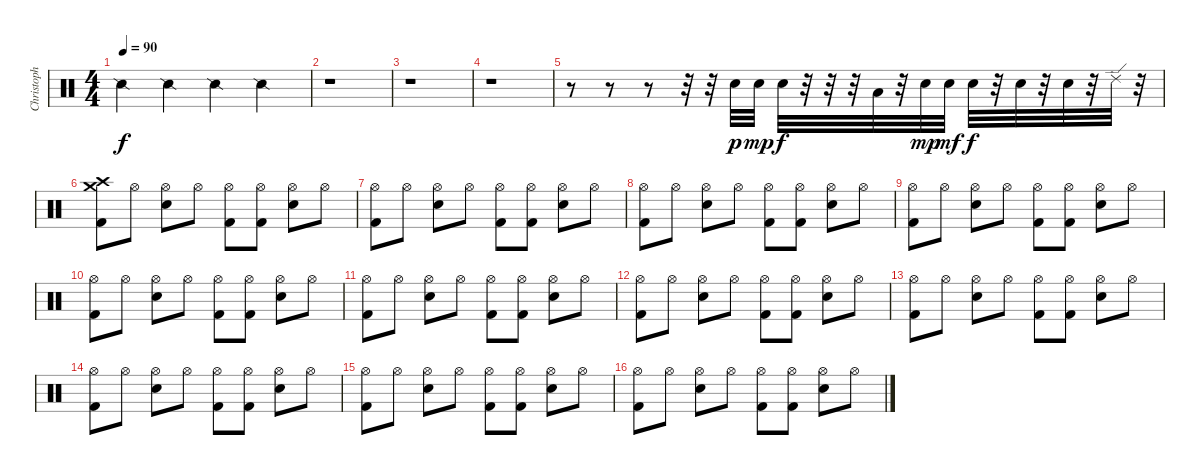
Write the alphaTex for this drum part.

\track ("Christoph Schneider" "Christoph ") {instrument percussion}
\staff {score}
\articulation defaults
\ts (4 4)
\tempo 90
\clef neutral
\ks c "Snare (side stick) 2".4{dy f} "Snare (side stick) 2".4 "Snare (side stick) 2".4 "Snare (side stick) 2".4
|
r.1 |
r.1 |
r.1 |
r.8 r.8 r.8 r.32 r.32 "Snare (hit) 2".32{dy p} "Snare (hit) 2".32{dy mp} "Snare (hit) 2".32{dy f} r.32 r.32 r.32 "Low Tom (hit)".32 r.32 "Snare (hit) 2".32{dy mp} "Snare (hit) 2".32{dy mf} "Snare (hit) 2".32{dy f} r.32 "Snare (hit) 2".32 r.32 "Snare (hit) 2".32 r.32 "Ride (edge) 2".32 r.32 |
("Crash medium (hit)" "Kick (hit) 2" "Crash high (hit)").8 "Hi-Hat (open)".8 ("Snare (hit) 2" "Hi-Hat (open)").8 "Hi-Hat (open)".8 ("Kick (hit) 2" "Hi-Hat (open)").8 ("Kick (hit) 2" "Hi-Hat (open)").8 ("Snare (hit) 2" "Hi-Hat (open)").8 "Hi-Hat (open)".8 |
("Kick (hit) 2" "Hi-Hat (open)").8 "Hi-Hat (open)".8 ("Snare (hit) 2" "Hi-Hat (open)").8 "Hi-Hat (open)".8 ("Kick (hit) 2" "Hi-Hat (open)").8 ("Kick (hit) 2" "Hi-Hat (open)").8 ("Snare (hit) 2" "Hi-Hat (open)").8 "Hi-Hat (open)".8 |
("Kick (hit) 2" "Hi-Hat (open)").8 "Hi-Hat (open)".8 ("Snare (hit) 2" "Hi-Hat (open)").8 "Hi-Hat (open)".8 ("Kick (hit) 2" "Hi-Hat (open)").8 ("Kick (hit) 2" "Hi-Hat (open)").8 ("Snare (hit) 2" "Hi-Hat (open)").8 "Hi-Hat (open)".8 |
("Kick (hit) 2" "Hi-Hat (open)").8 "Hi-Hat (open)".8 ("Snare (hit) 2" "Hi-Hat (open)").8 "Hi-Hat (open)".8 ("Kick (hit) 2" "Hi-Hat (open)").8 ("Kick (hit) 2" "Hi-Hat (open)").8 ("Snare (hit) 2" "Hi-Hat (open)").8 "Hi-Hat (open)".8 |
("Kick (hit) 2" "Hi-Hat (open)").8 "Hi-Hat (open)".8 ("Snare (hit) 2" "Hi-Hat (open)").8 "Hi-Hat (open)".8 ("Kick (hit) 2" "Hi-Hat (open)").8 ("Kick (hit) 2" "Hi-Hat (open)").8 ("Snare (hit) 2" "Hi-Hat (open)").8 "Hi-Hat (open)".8 |
("Kick (hit) 2" "Hi-Hat (open)").8 "Hi-Hat (open)".8 ("Snare (hit) 2" "Hi-Hat (open)").8 "Hi-Hat (open)".8 ("Kick (hit) 2" "Hi-Hat (open)").8 ("Kick (hit) 2" "Hi-Hat (open)").8 ("Snare (hit) 2" "Hi-Hat (open)").8 "Hi-Hat (open)".8 |
("Kick (hit) 2" "Hi-Hat (open)").8 "Hi-Hat (open)".8 ("Snare (hit) 2" "Hi-Hat (open)").8 "Hi-Hat (open)".8 ("Kick (hit) 2" "Hi-Hat (open)").8 ("Kick (hit) 2" "Hi-Hat (open)").8 ("Snare (hit) 2" "Hi-Hat (open)").8 "Hi-Hat (open)".8 |
("Kick (hit) 2" "Hi-Hat (open)").8 "Hi-Hat (open)".8 ("Snare (hit) 2" "Hi-Hat (open)").8 "Hi-Hat (open)".8 ("Kick (hit) 2" "Hi-Hat (open)").8 ("Kick (hit) 2" "Hi-Hat (open)").8 ("Snare (hit) 2" "Hi-Hat (open)").8 "Hi-Hat (open)".8 |
("Kick (hit) 2" "Hi-Hat (open)").8 "Hi-Hat (open)".8 ("Snare (hit) 2" "Hi-Hat (open)").8 "Hi-Hat (open)".8 ("Kick (hit) 2" "Hi-Hat (open)").8 ("Kick (hit) 2" "Hi-Hat (open)").8 ("Snare (hit) 2" "Hi-Hat (open)").8 "Hi-Hat (open)".8 |
("Kick (hit) 2" "Hi-Hat (open)").8 "Hi-Hat (open)".8 ("Snare (hit) 2" "Hi-Hat (open)").8 "Hi-Hat (open)".8 ("Kick (hit) 2" "Hi-Hat (open)").8 ("Kick (hit) 2" "Hi-Hat (open)").8 ("Snare (hit) 2" "Hi-Hat (open)").8 "Hi-Hat (open)".8 |
("Kick (hit) 2" "Hi-Hat (open)").8 "Hi-Hat (open)".8 ("Snare (hit) 2" "Hi-Hat (open)").8 "Hi-Hat (open)".8 ("Kick (hit) 2" "Hi-Hat (open)").8 ("Kick (hit) 2" "Hi-Hat (open)").8 ("Snare (hit) 2" "Hi-Hat (open)").8 "Hi-Hat (open)".8
